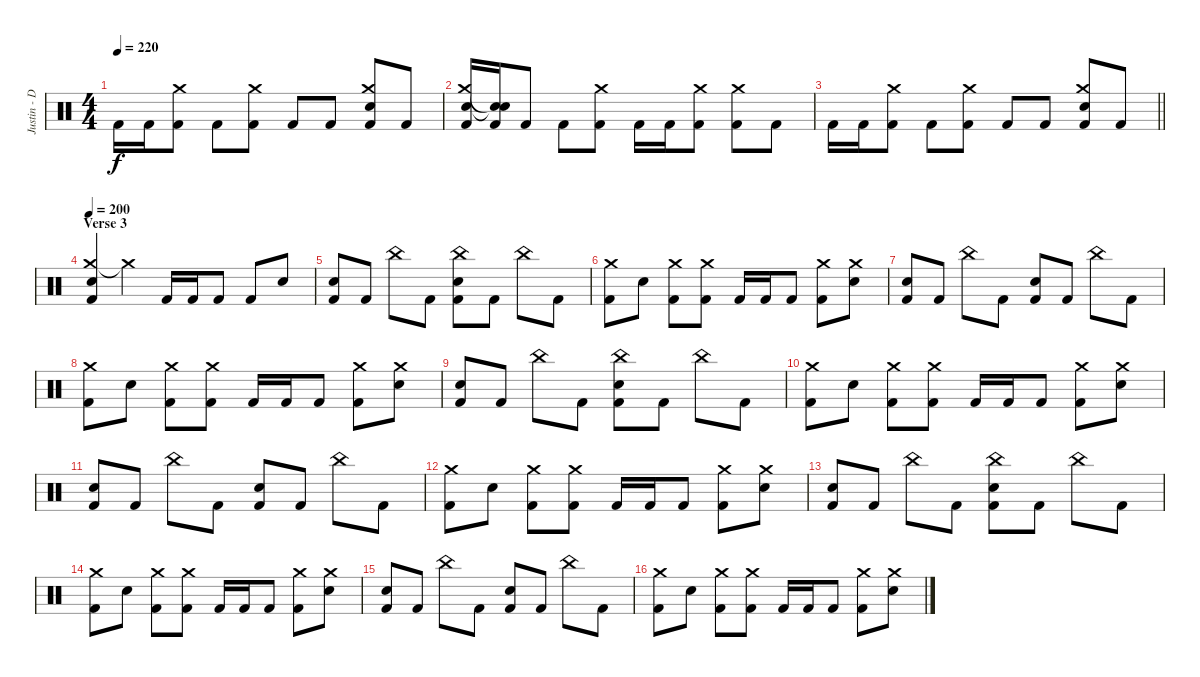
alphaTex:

\track ("Justin - Drums" "Justin - D") {instrument percussion}
\staff {score}
\articulation defaults
\ts (4 4)
\tempo 220
\clef neutral
\ks c "Kick (hit) 2".16{dy f} "Kick (hit) 2".16
("Crash medium (hit)" "Kick (hit) 2").8 "Kick (hit) 2".8 ("Crash medium (hit)" "Kick (hit) 2").8 "Kick (hit) 2".8 "Kick (hit) 2".8 ("Crash medium (hit)" "Snare (hit) 2" "Kick (hit) 2").8 "Kick (hit) 2".8 |
("Crash medium (hit)" "Snare (hit) 2" "Kick (hit) 2").16 ("Snare (hit)"{t} "Snare (hit)"{t} "Kick (hit) 2").16 "Kick (hit) 2".8 "Kick (hit) 2".8 ("Crash medium (hit)" "Kick (hit) 2").8 "Kick (hit) 2".16 "Kick (hit) 2".16 ("Crash medium (hit)" "Kick (hit) 2").8 ("Crash medium (hit)" "Kick (hit) 2").8 "Kick (hit) 2".8 |
\barLineRight lightlight "Kick (hit) 2".16 "Kick (hit) 2".16
("Crash medium (hit)" "Kick (hit) 2").8 "Kick (hit) 2".8 ("Crash medium (hit)" "Kick (hit) 2").8 "Kick (hit) 2".8 "Kick (hit) 2".8 ("Crash medium (hit)" "Snare (hit) 2" "Kick (hit) 2").8 "Kick (hit) 2".8 |
\section ("" "Verse 3")
\tempo 200
("Crash medium (hit)" "Snare (hit) 2" "Kick (hit) 2").4 "Crash medium (hit)"{t}.4 "Kick (hit) 2".16 "Kick (hit) 2".16 "Kick (hit) 2".8 "Kick (hit) 2".8 "Snare (hit) 2".8 |
("Snare (hit) 2" "Kick (hit) 2").8 "Kick (hit) 2".8 "China (hit)".8 "Kick (hit) 2".8 ("China (hit)" "Snare (hit) 2" "Kick (hit) 2").8 "Kick (hit) 2".8 "China (hit)".8 "Kick (hit) 2".8 |
("Crash medium (hit)" "Kick (hit) 2").8 "Snare (hit) 2".8 ("Crash medium (hit)" "Kick (hit) 2").8 ("Crash medium (hit)" "Kick (hit) 2").8 "Kick (hit) 2".16 "Kick (hit) 2".16 "Kick (hit) 2".8 ("Crash medium (hit)" "Kick (hit) 2").8 ("Crash medium (hit)" "Snare (hit) 2").8 |
("Snare (hit) 2" "Kick (hit) 2").8 "Kick (hit) 2".8 "China (hit)".8 "Kick (hit) 2".8 ("Snare (hit) 2" "Kick (hit) 2").8 "Kick (hit) 2".8 "China (hit)".8 "Kick (hit) 2".8 |
("Crash medium (hit)" "Kick (hit) 2").8 "Snare (hit) 2".8 ("Crash medium (hit)" "Kick (hit) 2").8 ("Crash medium (hit)" "Kick (hit) 2").8 "Kick (hit) 2".16 "Kick (hit) 2".16 "Kick (hit) 2".8 ("Crash medium (hit)" "Kick (hit) 2").8 ("Crash medium (hit)" "Snare (hit) 2").8 |
("Snare (hit) 2" "Kick (hit) 2").8 "Kick (hit) 2".8 "China (hit)".8 "Kick (hit) 2".8 ("China (hit)" "Snare (hit) 2" "Kick (hit) 2").8 "Kick (hit) 2".8 "China (hit)".8 "Kick (hit) 2".8 |
("Crash medium (hit)" "Kick (hit) 2").8 "Snare (hit) 2".8 ("Crash medium (hit)" "Kick (hit) 2").8 ("Crash medium (hit)" "Kick (hit) 2").8 "Kick (hit) 2".16 "Kick (hit) 2".16 "Kick (hit) 2".8 ("Crash medium (hit)" "Kick (hit) 2").8 ("Crash medium (hit)" "Snare (hit) 2").8 |
("Snare (hit) 2" "Kick (hit) 2").8 "Kick (hit) 2".8 "China (hit)".8 "Kick (hit) 2".8 ("Snare (hit) 2" "Kick (hit) 2").8 "Kick (hit) 2".8 "China (hit)".8 "Kick (hit) 2".8 |
("Crash medium (hit)" "Kick (hit) 2").8 "Snare (hit) 2".8 ("Crash medium (hit)" "Kick (hit) 2").8 ("Crash medium (hit)" "Kick (hit) 2").8 "Kick (hit) 2".16 "Kick (hit) 2".16 "Kick (hit) 2".8 ("Crash medium (hit)" "Kick (hit) 2").8 ("Crash medium (hit)" "Snare (hit) 2").8 |
("Snare (hit) 2" "Kick (hit) 2").8 "Kick (hit) 2".8 "China (hit)".8 "Kick (hit) 2".8 ("China (hit)" "Snare (hit) 2" "Kick (hit) 2").8 "Kick (hit) 2".8 "China (hit)".8 "Kick (hit) 2".8 |
("Crash medium (hit)" "Kick (hit) 2").8 "Snare (hit) 2".8 ("Crash medium (hit)" "Kick (hit) 2").8 ("Crash medium (hit)" "Kick (hit) 2").8 "Kick (hit) 2".16 "Kick (hit) 2".16 "Kick (hit) 2".8 ("Crash medium (hit)" "Kick (hit) 2").8 ("Crash medium (hit)" "Snare (hit) 2").8 |
("Snare (hit) 2" "Kick (hit) 2").8 "Kick (hit) 2".8 "China (hit)".8 "Kick (hit) 2".8 ("Snare (hit) 2" "Kick (hit) 2").8 "Kick (hit) 2".8 "China (hit)".8 "Kick (hit) 2".8 |
("Crash medium (hit)" "Kick (hit) 2").8 "Snare (hit) 2".8 ("Crash medium (hit)" "Kick (hit) 2").8 ("Crash medium (hit)" "Kick (hit) 2").8 "Kick (hit) 2".16 "Kick (hit) 2".16 "Kick (hit) 2".8 ("Crash medium (hit)" "Kick (hit) 2").8 ("Crash medium (hit)" "Snare (hit) 2").8
